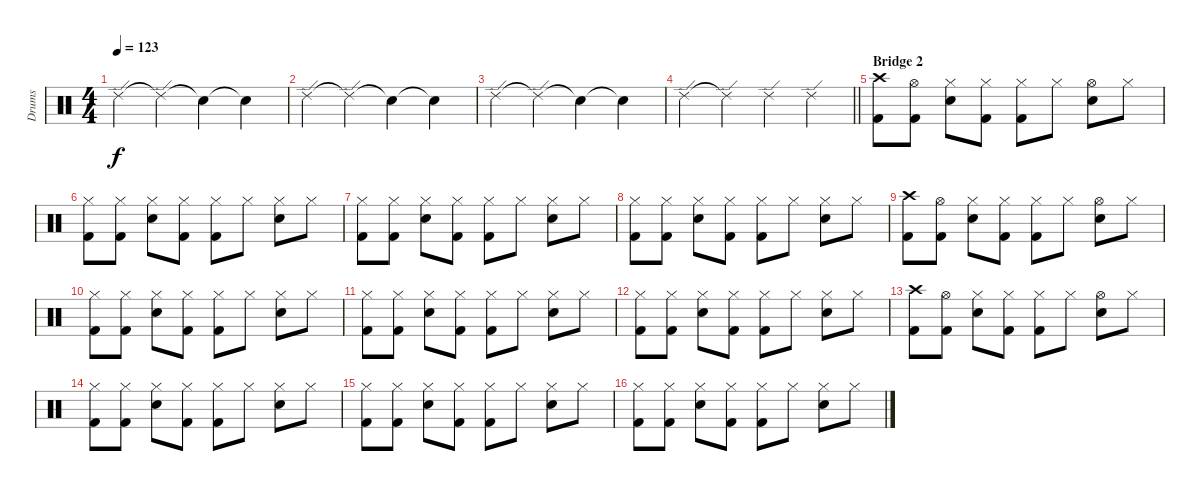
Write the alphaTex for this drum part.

\track ("Drums" "Drums") {instrument percussion}
\staff {score}
\articulation defaults
\ts (4 4)
\tempo 123
\clef neutral
\ks c "Ride (edge) 2".4{dy f} "Ride (edge) 2"{t}.4 "Snare (hit)"{t}.4 "Snare (hit)"{t}.4
|
"Ride (edge) 2".4 "Ride (edge) 2"{t}.4 "Snare (hit)"{t}.4 "Snare (hit)"{t}.4 |
"Ride (edge) 2".4 "Ride (edge) 2"{t}.4 "Snare (hit)"{t}.4 "Snare (hit)"{t}.4 |
\barLineRight lightlight "Ride (edge) 2".4 "Ride (edge) 2"{t}.4 "Ride (edge) 2".4 "Ride (edge) 2".4
|
\section ("" "Bridge 2")
("Kick (hit) 2" "Crash high (hit)").8 ("Kick (hit) 2" "Hi-Hat (open)").8 ("Electric Snare (hit)" "Hi-Hat (closed)").8 ("Kick (hit) 2" "Hi-Hat (closed)").8 ("Kick (hit) 2" "Hi-Hat (closed)").8 "Hi-Hat (closed)".8 ("Electric Snare (hit)" "Hi-Hat (open)").8 "Hi-Hat (closed)".8 |
("Kick (hit) 2" "Hi-Hat (closed)").8 ("Kick (hit) 2" "Hi-Hat (closed)").8 ("Electric Snare (hit)" "Hi-Hat (closed)").8 ("Kick (hit) 2" "Hi-Hat (closed)").8 ("Kick (hit) 2" "Hi-Hat (closed)").8 "Hi-Hat (closed)".8 ("Electric Snare (hit)" "Hi-Hat (closed)").8 "Hi-Hat (closed)".8 |
("Kick (hit) 2" "Hi-Hat (closed)").8 ("Kick (hit) 2" "Hi-Hat (closed)").8 ("Electric Snare (hit)" "Hi-Hat (closed)").8 ("Kick (hit) 2" "Hi-Hat (closed)").8 ("Kick (hit) 2" "Hi-Hat (closed)").8 "Hi-Hat (closed)".8 ("Electric Snare (hit)" "Hi-Hat (closed)").8 "Hi-Hat (closed)".8 |
("Kick (hit) 2" "Hi-Hat (closed)").8 ("Kick (hit) 2" "Hi-Hat (closed)").8 ("Electric Snare (hit)" "Hi-Hat (closed)").8 ("Kick (hit) 2" "Hi-Hat (closed)").8 ("Kick (hit) 2" "Hi-Hat (closed)").8 "Hi-Hat (closed)".8 ("Electric Snare (hit)" "Hi-Hat (closed)").8 "Hi-Hat (closed)".8 |
("Kick (hit) 2" "Crash high (hit)").8 ("Kick (hit) 2" "Hi-Hat (open)").8 ("Electric Snare (hit)" "Hi-Hat (closed)").8 ("Kick (hit) 2" "Hi-Hat (closed)").8 ("Kick (hit) 2" "Hi-Hat (closed)").8 "Hi-Hat (closed)".8 ("Electric Snare (hit)" "Hi-Hat (open)").8 "Hi-Hat (closed)".8 |
("Kick (hit) 2" "Hi-Hat (closed)").8 ("Kick (hit) 2" "Hi-Hat (closed)").8 ("Electric Snare (hit)" "Hi-Hat (closed)").8 ("Kick (hit) 2" "Hi-Hat (closed)").8 ("Kick (hit) 2" "Hi-Hat (closed)").8 "Hi-Hat (closed)".8 ("Electric Snare (hit)" "Hi-Hat (closed)").8 "Hi-Hat (closed)".8 |
("Kick (hit) 2" "Hi-Hat (closed)").8 ("Kick (hit) 2" "Hi-Hat (closed)").8 ("Electric Snare (hit)" "Hi-Hat (closed)").8 ("Kick (hit) 2" "Hi-Hat (closed)").8 ("Kick (hit) 2" "Hi-Hat (closed)").8 "Hi-Hat (closed)".8 ("Electric Snare (hit)" "Hi-Hat (closed)").8 "Hi-Hat (closed)".8 |
("Kick (hit) 2" "Hi-Hat (closed)").8 ("Kick (hit) 2" "Hi-Hat (closed)").8 ("Electric Snare (hit)" "Hi-Hat (closed)").8 ("Kick (hit) 2" "Hi-Hat (closed)").8 ("Kick (hit) 2" "Hi-Hat (closed)").8 "Hi-Hat (closed)".8 ("Electric Snare (hit)" "Hi-Hat (closed)").8 "Hi-Hat (closed)".8 |
("Kick (hit) 2" "Crash high (hit)").8 ("Kick (hit) 2" "Hi-Hat (open)").8 ("Electric Snare (hit)" "Hi-Hat (closed)").8 ("Kick (hit) 2" "Hi-Hat (closed)").8 ("Kick (hit) 2" "Hi-Hat (closed)").8 "Hi-Hat (closed)".8 ("Electric Snare (hit)" "Hi-Hat (open)").8 "Hi-Hat (closed)".8 |
("Kick (hit) 2" "Hi-Hat (closed)").8 ("Kick (hit) 2" "Hi-Hat (closed)").8 ("Electric Snare (hit)" "Hi-Hat (closed)").8 ("Kick (hit) 2" "Hi-Hat (closed)").8 ("Kick (hit) 2" "Hi-Hat (closed)").8 "Hi-Hat (closed)".8 ("Electric Snare (hit)" "Hi-Hat (closed)").8 "Hi-Hat (closed)".8 |
("Kick (hit) 2" "Hi-Hat (closed)").8 ("Kick (hit) 2" "Hi-Hat (closed)").8 ("Electric Snare (hit)" "Hi-Hat (closed)").8 ("Kick (hit) 2" "Hi-Hat (closed)").8 ("Kick (hit) 2" "Hi-Hat (closed)").8 "Hi-Hat (closed)".8 ("Electric Snare (hit)" "Hi-Hat (closed)").8 "Hi-Hat (closed)".8 |
("Kick (hit) 2" "Hi-Hat (closed)").8 ("Kick (hit) 2" "Hi-Hat (closed)").8 ("Electric Snare (hit)" "Hi-Hat (closed)").8 ("Kick (hit) 2" "Hi-Hat (closed)").8 ("Kick (hit) 2" "Hi-Hat (closed)").8 "Hi-Hat (closed)".8 ("Electric Snare (hit)" "Hi-Hat (closed)").8 "Hi-Hat (closed)".8
